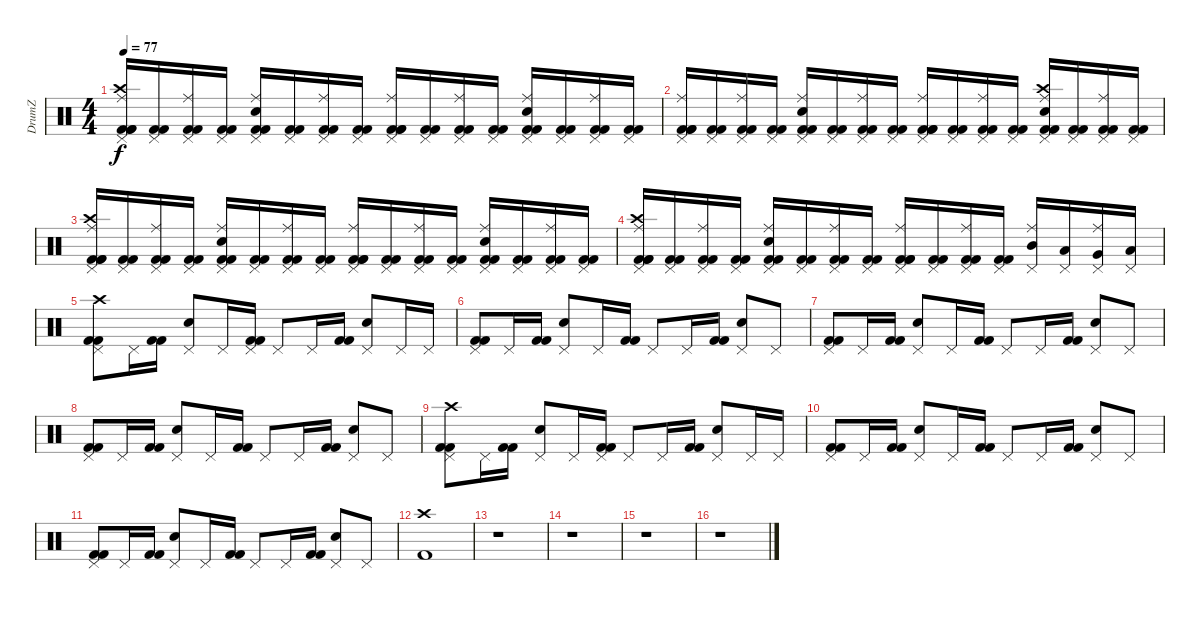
\track ("DrumZ" "DrumZ") {instrument percussion}
\staff {score}
\articulation defaults
\ts (4 4)
\tempo 77
\clef neutral
\ks c
("Ride (middle)" "Crash high (hit)" "Kick (hit) 2" "Kick (hit) 2" "Kick (hit) 2" "Pedal Hi-Hat (hit)").16{dy f} ("Kick (hit) 2" "Kick (hit) 2" "Pedal Hi-Hat (hit)").16 ("Ride (middle)" "Kick (hit) 2" "Kick (hit) 2" "Pedal Hi-Hat (hit)").16 ("Kick (hit) 2" "Kick (hit) 2" "Pedal Hi-Hat (hit)").16 ("Ride (middle)" "Electric Snare (hit)" "Kick (hit) 2" "Kick (hit) 2" "Pedal Hi-Hat (hit)").16 ("Kick (hit) 2" "Kick (hit) 2" "Pedal Hi-Hat (hit)").16 ("Ride (middle)" "Kick (hit) 2" "Kick (hit) 2" "Pedal Hi-Hat (hit)").16 ("Kick (hit) 2" "Kick (hit) 2" "Pedal Hi-Hat (hit)").16 ("Ride (middle)" "Kick (hit) 2" "Kick (hit) 2" "Kick (hit) 2" "Pedal Hi-Hat (hit)").16 ("Kick (hit) 2" "Kick (hit) 2" "Pedal Hi-Hat (hit)").16 ("Ride (middle)" "Kick (hit) 2" "Kick (hit) 2" "Pedal Hi-Hat (hit)").16 ("Kick (hit) 2" "Kick (hit) 2" "Pedal Hi-Hat (hit)").16 ("Ride (middle)" "Electric Snare (hit)" "Kick (hit) 2" "Kick (hit) 2" "Pedal Hi-Hat (hit)").16 ("Kick (hit) 2" "Kick (hit) 2" "Pedal Hi-Hat (hit)").16 ("Ride (middle)" "Kick (hit) 2" "Kick (hit) 2" "Pedal Hi-Hat (hit)").16 ("Kick (hit) 2" "Kick (hit) 2" "Pedal Hi-Hat (hit)").16 |
("Pedal Hi-Hat (hit)" "Kick (hit) 2" "Kick (hit) 2" "Kick (hit) 2" "Ride (middle)").16 ("Pedal Hi-Hat (hit)" "Kick (hit) 2" "Kick (hit) 2").16 ("Pedal Hi-Hat (hit)" "Kick (hit) 2" "Kick (hit) 2" "Ride (middle)").16 ("Pedal Hi-Hat (hit)" "Kick (hit) 2" "Kick (hit) 2").16 ("Pedal Hi-Hat (hit)" "Electric Snare (hit)" "Kick (hit) 2" "Kick (hit) 2" "Ride (middle)").16 ("Pedal Hi-Hat (hit)" "Kick (hit) 2" "Kick (hit) 2").16 ("Pedal Hi-Hat (hit)" "Kick (hit) 2" "Kick (hit) 2" "Ride (middle)").16 ("Pedal Hi-Hat (hit)" "Kick (hit) 2" "Kick (hit) 2").16 ("Pedal Hi-Hat (hit)" "Kick (hit) 2" "Kick (hit) 2" "Kick (hit) 2" "Ride (middle)").16 ("Pedal Hi-Hat (hit)" "Kick (hit) 2" "Kick (hit) 2").16 ("Pedal Hi-Hat (hit)" "Kick (hit) 2" "Kick (hit) 2" "Ride (middle)").16 ("Pedal Hi-Hat (hit)" "Kick (hit) 2" "Kick (hit) 2").16 ("Pedal Hi-Hat (hit)" "Electric Snare (hit)" "Kick (hit) 2" "Kick (hit) 2" "Crash high (hit)" "Ride (middle)").16 ("Pedal Hi-Hat (hit)" "Kick (hit) 2" "Kick (hit) 2").16 ("Pedal Hi-Hat (hit)" "Kick (hit) 2" "Kick (hit) 2" "Ride (middle)").16 ("Pedal Hi-Hat (hit)" "Kick (hit) 2" "Kick (hit) 2").16 |
("Pedal Hi-Hat (hit)" "Crash high (hit)" "Kick (hit) 2" "Kick (hit) 2" "Kick (hit) 2" "Ride (middle)").16 ("Pedal Hi-Hat (hit)" "Kick (hit) 2" "Kick (hit) 2").16 ("Pedal Hi-Hat (hit)" "Kick (hit) 2" "Kick (hit) 2" "Ride (middle)").16 ("Pedal Hi-Hat (hit)" "Kick (hit) 2" "Kick (hit) 2").16 ("Pedal Hi-Hat (hit)" "Electric Snare (hit)" "Kick (hit) 2" "Kick (hit) 2" "Ride (middle)").16 ("Pedal Hi-Hat (hit)" "Kick (hit) 2" "Kick (hit) 2").16 ("Pedal Hi-Hat (hit)" "Kick (hit) 2" "Kick (hit) 2" "Ride (middle)").16 ("Pedal Hi-Hat (hit)" "Kick (hit) 2" "Kick (hit) 2").16 ("Pedal Hi-Hat (hit)" "Kick (hit) 2" "Kick (hit) 2" "Kick (hit) 2" "Ride (middle)").16 ("Pedal Hi-Hat (hit)" "Kick (hit) 2" "Kick (hit) 2").16 ("Pedal Hi-Hat (hit)" "Kick (hit) 2" "Kick (hit) 2" "Ride (middle)").16 ("Pedal Hi-Hat (hit)" "Kick (hit) 2" "Kick (hit) 2").16 ("Pedal Hi-Hat (hit)" "Electric Snare (hit)" "Kick (hit) 2" "Kick (hit) 2" "Ride (middle)").16 ("Pedal Hi-Hat (hit)" "Kick (hit) 2" "Kick (hit) 2").16 ("Pedal Hi-Hat (hit)" "Kick (hit) 2" "Kick (hit) 2" "Ride (middle)").16 ("Pedal Hi-Hat (hit)" "Kick (hit) 2" "Kick (hit) 2").16 |
("Pedal Hi-Hat (hit)" "Crash high (hit)" "Kick (hit) 2" "Kick (hit) 2" "Kick (hit) 2" "Ride (middle)").16 ("Pedal Hi-Hat (hit)" "Kick (hit) 2" "Kick (hit) 2").16 ("Pedal Hi-Hat (hit)" "Kick (hit) 2" "Kick (hit) 2" "Ride (middle)").16 ("Pedal Hi-Hat (hit)" "Kick (hit) 2" "Kick (hit) 2").16 ("Pedal Hi-Hat (hit)" "Electric Snare (hit)" "Kick (hit) 2" "Kick (hit) 2" "Ride (middle)").16 ("Pedal Hi-Hat (hit)" "Kick (hit) 2" "Kick (hit) 2").16 ("Pedal Hi-Hat (hit)" "Kick (hit) 2" "Kick (hit) 2" "Ride (middle)").16 ("Pedal Hi-Hat (hit)" "Kick (hit) 2" "Kick (hit) 2").16 ("Pedal Hi-Hat (hit)" "Kick (hit) 2" "Kick (hit) 2" "Kick (hit) 2" "Ride (middle)").16 ("Pedal Hi-Hat (hit)" "Kick (hit) 2" "Kick (hit) 2").16 ("Pedal Hi-Hat (hit)" "Kick (hit) 2" "Kick (hit) 2" "Ride (middle)").16 ("Pedal Hi-Hat (hit)" "Kick (hit) 2" "Kick (hit) 2").16 ("Pedal Hi-Hat (hit)" "Mid Tom (hit)" "Ride (middle)").16 ("Pedal Hi-Hat (hit)" "Low Tom (hit)").16 ("Pedal Hi-Hat (hit)" "Very Low Tom (hit)" "Ride (middle)").16 ("Pedal Hi-Hat (hit)" "Low Floor Tom (hit)").16 |
("Pedal Hi-Hat (hit)" "Crash high (hit)" "Kick (hit) 2" "Kick (hit) 2").8 "Pedal Hi-Hat (hit)".16 ("Kick (hit) 2" "Kick (hit) 2").16 ("Pedal Hi-Hat (hit)" "Electric Snare (hit)").8 "Pedal Hi-Hat (hit)".16 ("Pedal Hi-Hat (hit)" "Kick (hit) 2" "Kick (hit) 2").16 "Pedal Hi-Hat (hit)".8 "Pedal Hi-Hat (hit)".16 ("Kick (hit) 2" "Kick (hit) 2").16 ("Pedal Hi-Hat (hit)" "Electric Snare (hit)").8 "Pedal Hi-Hat (hit)".16 "Pedal Hi-Hat (hit)".16 |
("Pedal Hi-Hat (hit)" "Kick (hit) 2" "Kick (hit) 2").8 "Pedal Hi-Hat (hit)".16 ("Kick (hit) 2" "Kick (hit) 2").16 ("Pedal Hi-Hat (hit)" "Electric Snare (hit)").8 "Pedal Hi-Hat (hit)".16 ("Kick (hit) 2" "Kick (hit) 2").16 "Pedal Hi-Hat (hit)".8 "Pedal Hi-Hat (hit)".16 ("Kick (hit) 2" "Kick (hit) 2").16 ("Pedal Hi-Hat (hit)" "Electric Snare (hit)").8 "Pedal Hi-Hat (hit)".8 |
("Pedal Hi-Hat (hit)" "Kick (hit) 2" "Kick (hit) 2").8 "Pedal Hi-Hat (hit)".16 ("Kick (hit) 2" "Kick (hit) 2").16 ("Pedal Hi-Hat (hit)" "Electric Snare (hit)").8 "Pedal Hi-Hat (hit)".16 ("Kick (hit) 2" "Kick (hit) 2").16 "Pedal Hi-Hat (hit)".8 "Pedal Hi-Hat (hit)".16 ("Kick (hit) 2" "Kick (hit) 2").16 ("Pedal Hi-Hat (hit)" "Electric Snare (hit)").8 "Pedal Hi-Hat (hit)".8 |
("Pedal Hi-Hat (hit)" "Kick (hit) 2" "Kick (hit) 2").8 "Pedal Hi-Hat (hit)".16 ("Kick (hit) 2" "Kick (hit) 2").16 ("Pedal Hi-Hat (hit)" "Electric Snare (hit)").8 "Pedal Hi-Hat (hit)".16 ("Kick (hit) 2" "Kick (hit) 2").16 "Pedal Hi-Hat (hit)".8 "Pedal Hi-Hat (hit)".16 ("Kick (hit) 2" "Kick (hit) 2").16 ("Pedal Hi-Hat (hit)" "Electric Snare (hit)").8 "Pedal Hi-Hat (hit)".8 |
("Pedal Hi-Hat (hit)" "Crash high (hit)" "Kick (hit) 2" "Kick (hit) 2").8 "Pedal Hi-Hat (hit)".16 ("Kick (hit) 2" "Kick (hit) 2").16 ("Pedal Hi-Hat (hit)" "Electric Snare (hit)").8 "Pedal Hi-Hat (hit)".16 ("Pedal Hi-Hat (hit)" "Kick (hit) 2" "Kick (hit) 2").16 "Pedal Hi-Hat (hit)".8 "Pedal Hi-Hat (hit)".16 ("Kick (hit) 2" "Kick (hit) 2").16 ("Pedal Hi-Hat (hit)" "Electric Snare (hit)").8 "Pedal Hi-Hat (hit)".16 "Pedal Hi-Hat (hit)".16 |
("Pedal Hi-Hat (hit)" "Kick (hit) 2" "Kick (hit) 2").8 "Pedal Hi-Hat (hit)".16 ("Kick (hit) 2" "Kick (hit) 2").16 ("Pedal Hi-Hat (hit)" "Electric Snare (hit)").8 "Pedal Hi-Hat (hit)".16 ("Kick (hit) 2" "Kick (hit) 2").16 "Pedal Hi-Hat (hit)".8 "Pedal Hi-Hat (hit)".16 ("Kick (hit) 2" "Kick (hit) 2").16 ("Pedal Hi-Hat (hit)" "Electric Snare (hit)").8 "Pedal Hi-Hat (hit)".8 |
("Pedal Hi-Hat (hit)" "Kick (hit) 2" "Kick (hit) 2").8 "Pedal Hi-Hat (hit)".16 ("Kick (hit) 2" "Kick (hit) 2").16 ("Pedal Hi-Hat (hit)" "Electric Snare (hit)").8 "Pedal Hi-Hat (hit)".16 ("Kick (hit) 2" "Kick (hit) 2").16 "Pedal Hi-Hat (hit)".8 "Pedal Hi-Hat (hit)".16 ("Kick (hit) 2" "Kick (hit) 2").16 ("Pedal Hi-Hat (hit)" "Electric Snare (hit)").8 "Pedal Hi-Hat (hit)".8 |
("Kick (hit) 2" "Crash high (hit)").1 |
r.1 |
r.1 |
r.1 |
r.1
